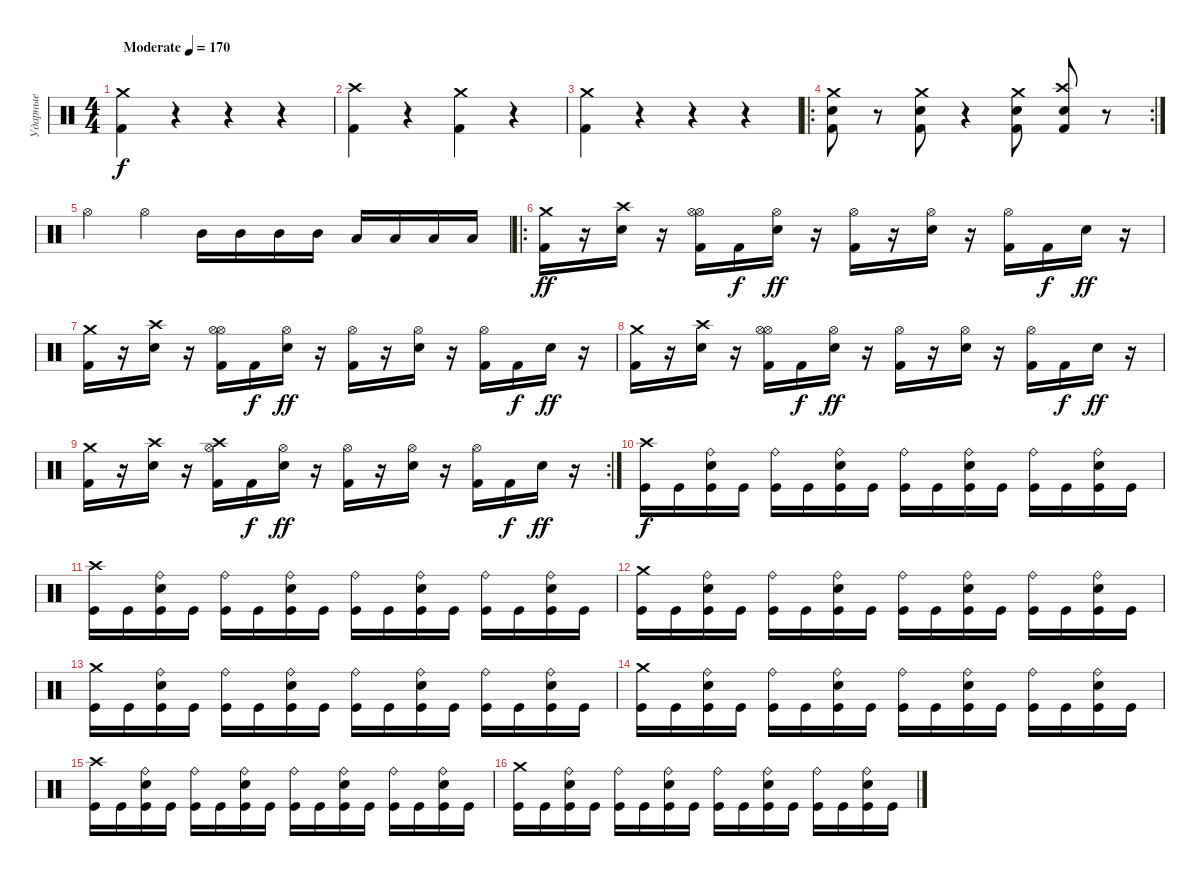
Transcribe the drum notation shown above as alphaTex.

\track ("Ударные" "Ударные") {instrument percussion}
\staff {score}
\articulation defaults
\ts (4 4)
\tempo (170 "Moderate")
\clef neutral
\ks c
("Crash medium (hit)" "Kick (hit) 2").4{dy f} r.4 r.4 r.4 |
("Crash high (hit)" "Kick (hit) 2").4 r.4 ("Kick (hit) 2" "Crash medium (hit)").4 r.4 |
("Crash medium (hit)" "Kick (hit) 2").4 r.4 r.4 r.4 |
\ro
\rc 2
("Kick (hit) 2" "Crash medium (hit)" "Snare (hit) 2").8 r.8 ("Kick (hit) 2" "Crash medium (hit)" "Snare (hit) 2").8 r.4 ("Crash medium (hit)" "Kick (hit) 2" "Snare (hit) 2").8 ("Crash high (hit)" "Kick (hit) 2" "Snare (hit) 2").8 r.8 |
"Hi-Hat (open)".4 "Hi-Hat (open)".4 "Mid Tom (hit)".16 "Mid Tom (hit)".16 "Mid Tom (hit)".16 "Mid Tom (hit)".16 "Low Tom (hit)".16 "Low Tom (hit)".16 "Low Tom (hit)".16 "Low Tom (hit)".16 |
\ro
("Kick (hit) 2" "Crash medium (hit)").16{dy ff} r.16 ("Electric Snare (hit)" "Crash high (hit)").16 r.16 ("Kick (hit) 2" "Hi-Hat (open)" "Hi-Hat (open)").16 "Kick (hit) 2".16{dy f} ("Electric Snare (hit)" "Hi-Hat (open)").16{dy ff} r.16 ("Kick (hit) 2" "Hi-Hat (open)").16 r.16 ("Electric Snare (hit)" "Hi-Hat (open)").16 r.16 ("Kick (hit) 2" "Hi-Hat (open)").16 "Kick (hit) 2".16{dy f} "Electric Snare (hit)".16{dy ff} r.16 |
("Kick (hit) 2" "Crash medium (hit)").16 r.16 ("Electric Snare (hit)" "Crash high (hit)").16 r.16 ("Kick (hit) 2" "Hi-Hat (open)" "Hi-Hat (open)").16 "Kick (hit) 2".16{dy f} ("Electric Snare (hit)" "Hi-Hat (open)").16{dy ff} r.16 ("Kick (hit) 2" "Hi-Hat (open)").16 r.16 ("Electric Snare (hit)" "Hi-Hat (open)").16 r.16 ("Kick (hit) 2" "Hi-Hat (open)").16 "Kick (hit) 2".16{dy f} "Electric Snare (hit)".16{dy ff} r.16 |
("Kick (hit) 2" "Crash medium (hit)").16 r.16 ("Electric Snare (hit)" "Crash high (hit)").16 r.16 ("Kick (hit) 2" "Hi-Hat (open)" "Hi-Hat (open)").16 "Kick (hit) 2".16{dy f} ("Electric Snare (hit)" "Hi-Hat (open)").16{dy ff} r.16 ("Kick (hit) 2" "Hi-Hat (open)").16 r.16 ("Electric Snare (hit)" "Hi-Hat (open)").16 r.16 ("Kick (hit) 2" "Hi-Hat (open)").16 "Kick (hit) 2".16{dy f} "Electric Snare (hit)".16{dy ff} r.16 |
\rc 2
("Kick (hit) 2" "Crash medium (hit)").16 r.16 ("Electric Snare (hit)" "Crash high (hit)").16 r.16 ("Kick (hit) 2" "Crash high (hit)" "Hi-Hat (open)").16 "Kick (hit) 2".16{dy f} ("Electric Snare (hit)" "Hi-Hat (open)").16{dy ff} r.16 ("Kick (hit) 2" "Hi-Hat (open)").16 r.16 ("Electric Snare (hit)" "Hi-Hat (open)").16 r.16 ("Kick (hit) 2" "Hi-Hat (open)").16 "Kick (hit) 2".16{dy f} "Electric Snare (hit)".16{dy ff} r.16 |
("Crash high (hit)" "Kick (hit)").16{dy f} "Kick (hit)".16 ("Ride (bell)" "Snare (hit) 2" "Kick (hit)").16 "Kick (hit)".16 ("Ride (bell)" "Kick (hit)").16 "Kick (hit)".16 ("Ride (bell)" "Snare (hit) 2" "Kick (hit)").16 "Kick (hit)".16 ("Ride (bell)" "Kick (hit)").16 "Kick (hit)".16 ("Ride (bell)" "Snare (hit) 2" "Kick (hit)").16 "Kick (hit)".16 ("Ride (bell)" "Kick (hit)").16 "Kick (hit)".16 ("Ride (bell)" "Snare (hit) 2" "Kick (hit)").16 "Kick (hit)".16 |
("Crash high (hit)" "Kick (hit)").16 "Kick (hit)".16 ("Ride (bell)" "Snare (hit) 2" "Kick (hit)").16 "Kick (hit)".16 ("Ride (bell)" "Kick (hit)").16 "Kick (hit)".16 ("Ride (bell)" "Snare (hit) 2" "Kick (hit)").16 "Kick (hit)".16 ("Ride (bell)" "Kick (hit)").16 "Kick (hit)".16 ("Ride (bell)" "Snare (hit) 2" "Kick (hit)").16 "Kick (hit)".16 ("Ride (bell)" "Kick (hit)").16 "Kick (hit)".16 ("Ride (bell)" "Snare (hit) 2" "Kick (hit)").16 "Kick (hit)".16 |
("Crash medium (hit)" "Kick (hit)").16 "Kick (hit)".16 ("Ride (bell)" "Snare (hit) 2" "Kick (hit)").16 "Kick (hit)".16 ("Ride (bell)" "Kick (hit)").16 "Kick (hit)".16 ("Ride (bell)" "Snare (hit) 2" "Kick (hit)").16 "Kick (hit)".16 ("Ride (bell)" "Kick (hit)").16 "Kick (hit)".16 ("Ride (bell)" "Snare (hit) 2" "Kick (hit)").16 "Kick (hit)".16 ("Ride (bell)" "Kick (hit)").16 "Kick (hit)".16 ("Ride (bell)" "Snare (hit) 2" "Kick (hit)").16 "Kick (hit)".16 |
("Crash medium (hit)" "Kick (hit)").16 "Kick (hit)".16 ("Ride (bell)" "Snare (hit) 2" "Kick (hit)").16 "Kick (hit)".16 ("Ride (bell)" "Kick (hit)").16 "Kick (hit)".16 ("Ride (bell)" "Snare (hit) 2" "Kick (hit)").16 "Kick (hit)".16 ("Ride (bell)" "Kick (hit)").16 "Kick (hit)".16 ("Ride (bell)" "Snare (hit) 2" "Kick (hit)").16 "Kick (hit)".16 ("Ride (bell)" "Kick (hit)").16 "Kick (hit)".16 ("Ride (bell)" "Snare (hit) 2" "Kick (hit)").16 "Kick (hit)".16 |
("Crash medium (hit)" "Kick (hit)").16 "Kick (hit)".16 ("Ride (bell)" "Snare (hit) 2" "Kick (hit)").16 "Kick (hit)".16 ("Ride (bell)" "Kick (hit)").16 "Kick (hit)".16 ("Ride (bell)" "Snare (hit) 2" "Kick (hit)").16 "Kick (hit)".16 ("Ride (bell)" "Kick (hit)").16 "Kick (hit)".16 ("Ride (bell)" "Snare (hit) 2" "Kick (hit)").16 "Kick (hit)".16 ("Ride (bell)" "Kick (hit)").16 "Kick (hit)".16 ("Ride (bell)" "Snare (hit) 2" "Kick (hit)").16 "Kick (hit)".16 |
("Crash high (hit)" "Kick (hit)").16 "Kick (hit)".16 ("Ride (bell)" "Snare (hit) 2" "Kick (hit)").16 "Kick (hit)".16 ("Ride (bell)" "Kick (hit)").16 "Kick (hit)".16 ("Ride (bell)" "Snare (hit) 2" "Kick (hit)").16 "Kick (hit)".16 ("Ride (bell)" "Kick (hit)").16 "Kick (hit)".16 ("Ride (bell)" "Snare (hit) 2" "Kick (hit)").16 "Kick (hit)".16 ("Ride (bell)" "Kick (hit)").16 "Kick (hit)".16 ("Ride (bell)" "Snare (hit) 2" "Kick (hit)").16 "Kick (hit)".16 |
("Crash medium (hit)" "Kick (hit)").16 "Kick (hit)".16 ("Ride (bell)" "Snare (hit) 2" "Kick (hit)").16 "Kick (hit)".16 ("Ride (bell)" "Kick (hit)").16 "Kick (hit)".16 ("Ride (bell)" "Snare (hit) 2" "Kick (hit)").16 "Kick (hit)".16 ("Ride (bell)" "Kick (hit)").16 "Kick (hit)".16 ("Ride (bell)" "Snare (hit) 2" "Kick (hit)").16 "Kick (hit)".16 ("Ride (bell)" "Kick (hit)").16 "Kick (hit)".16 ("Ride (bell)" "Snare (hit) 2" "Kick (hit)").16 "Kick (hit)".16
